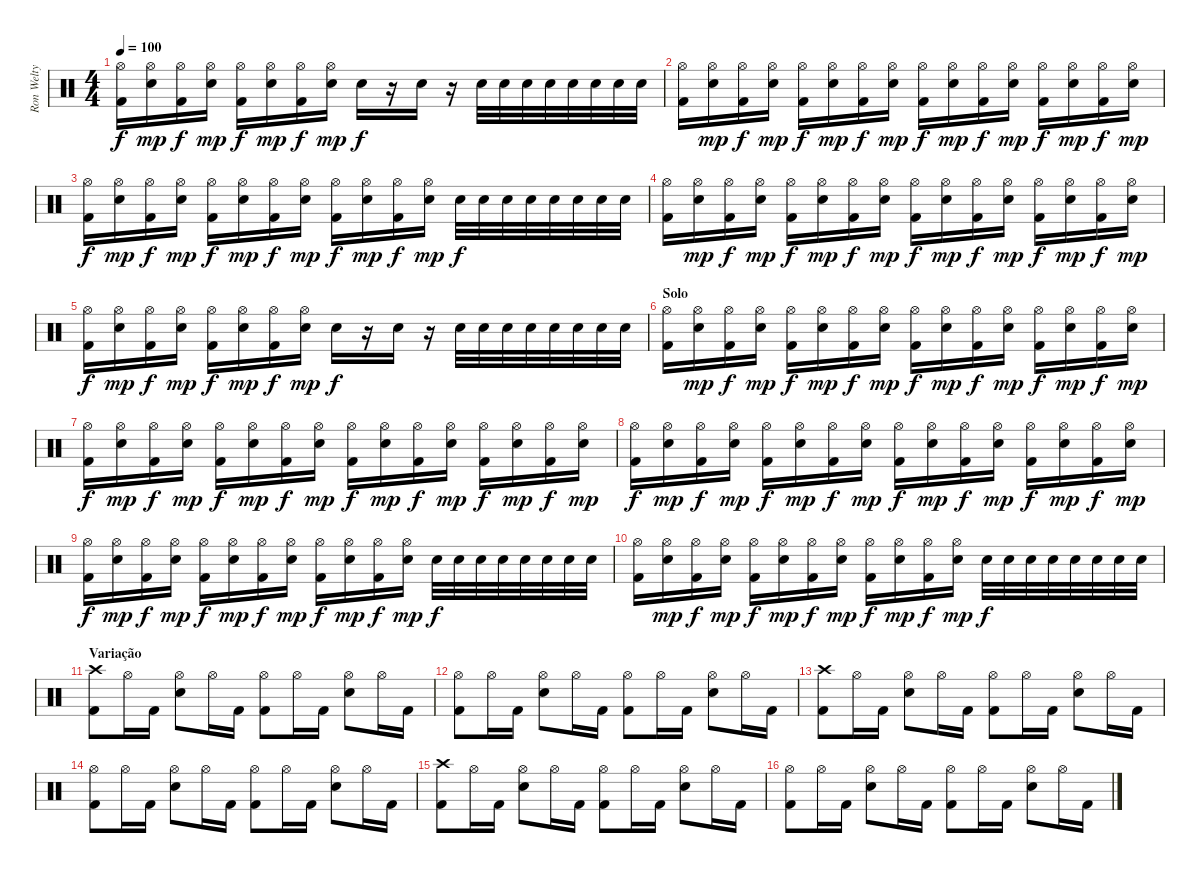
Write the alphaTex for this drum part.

\track ("Ron Welty" "Ron Welty") {instrument percussion}
\staff {score}
\articulation defaults
\ts (4 4)
\tempo 100
\clef neutral
\ks c
("Hi-Hat (open)" "Kick (hit) 2").16{dy f} ("Hi-Hat (open)" "Snare (hit) 2").16{dy mp} ("Hi-Hat (open)" "Kick (hit) 2").16{dy f} ("Hi-Hat (open)" "Snare (hit) 2").16{dy mp} ("Hi-Hat (open)" "Kick (hit) 2").16{dy f} ("Hi-Hat (open)" "Snare (hit) 2").16{dy mp} ("Hi-Hat (open)" "Kick (hit) 2").16{dy f} ("Hi-Hat (open)" "Snare (hit) 2").16{dy mp} "Snare (hit) 2".16{dy f} r.16 "Snare (hit) 2".16 r.16 "Snare (hit) 2".32 "Snare (hit) 2".32 "Snare (hit) 2".32 "Snare (hit) 2".32 "Snare (hit) 2".32 "Snare (hit) 2".32 "Snare (hit) 2".32 "Snare (hit) 2".32 |
("Hi-Hat (open)" "Kick (hit) 2").16 ("Hi-Hat (open)" "Snare (hit) 2").16{dy mp} ("Hi-Hat (open)" "Kick (hit) 2").16{dy f} ("Hi-Hat (open)" "Snare (hit) 2").16{dy mp} ("Hi-Hat (open)" "Kick (hit) 2").16{dy f} ("Hi-Hat (open)" "Snare (hit) 2").16{dy mp} ("Hi-Hat (open)" "Kick (hit) 2").16{dy f} ("Hi-Hat (open)" "Snare (hit) 2").16{dy mp} ("Hi-Hat (open)" "Kick (hit) 2").16{dy f} ("Hi-Hat (open)" "Snare (hit) 2").16{dy mp} ("Hi-Hat (open)" "Kick (hit) 2").16{dy f} ("Hi-Hat (open)" "Snare (hit) 2").16{dy mp} ("Hi-Hat (open)" "Kick (hit) 2").16{dy f} ("Hi-Hat (open)" "Snare (hit) 2").16{dy mp} ("Hi-Hat (open)" "Kick (hit) 2").16{dy f} ("Hi-Hat (open)" "Snare (hit) 2").16{dy mp} |
("Hi-Hat (open)" "Kick (hit) 2").16{dy f} ("Hi-Hat (open)" "Snare (hit) 2").16{dy mp} ("Hi-Hat (open)" "Kick (hit) 2").16{dy f} ("Hi-Hat (open)" "Snare (hit) 2").16{dy mp} ("Hi-Hat (open)" "Kick (hit) 2").16{dy f} ("Hi-Hat (open)" "Snare (hit) 2").16{dy mp} ("Hi-Hat (open)" "Kick (hit) 2").16{dy f} ("Hi-Hat (open)" "Snare (hit) 2").16{dy mp} ("Hi-Hat (open)" "Kick (hit) 2").16{dy f} ("Hi-Hat (open)" "Snare (hit) 2").16{dy mp} ("Hi-Hat (open)" "Kick (hit) 2").16{dy f} ("Hi-Hat (open)" "Snare (hit) 2").16{dy mp} "Snare (hit) 2".32{dy f} "Snare (hit) 2".32 "Snare (hit) 2".32 "Snare (hit) 2".32 "Snare (hit) 2".32 "Snare (hit) 2".32 "Snare (hit) 2".32 "Snare (hit) 2".32 |
("Hi-Hat (open)" "Kick (hit) 2").16 ("Hi-Hat (open)" "Snare (hit) 2").16{dy mp} ("Hi-Hat (open)" "Kick (hit) 2").16{dy f} ("Hi-Hat (open)" "Snare (hit) 2").16{dy mp} ("Hi-Hat (open)" "Kick (hit) 2").16{dy f} ("Hi-Hat (open)" "Snare (hit) 2").16{dy mp} ("Hi-Hat (open)" "Kick (hit) 2").16{dy f} ("Hi-Hat (open)" "Snare (hit) 2").16{dy mp} ("Hi-Hat (open)" "Kick (hit) 2").16{dy f} ("Hi-Hat (open)" "Snare (hit) 2").16{dy mp} ("Hi-Hat (open)" "Kick (hit) 2").16{dy f} ("Hi-Hat (open)" "Snare (hit) 2").16{dy mp} ("Hi-Hat (open)" "Kick (hit) 2").16{dy f} ("Hi-Hat (open)" "Snare (hit) 2").16{dy mp} ("Hi-Hat (open)" "Kick (hit) 2").16{dy f} ("Hi-Hat (open)" "Snare (hit) 2").16{dy mp} |
("Hi-Hat (open)" "Kick (hit) 2").16{dy f} ("Hi-Hat (open)" "Snare (hit) 2").16{dy mp} ("Hi-Hat (open)" "Kick (hit) 2").16{dy f} ("Hi-Hat (open)" "Snare (hit) 2").16{dy mp} ("Hi-Hat (open)" "Kick (hit) 2").16{dy f} ("Hi-Hat (open)" "Snare (hit) 2").16{dy mp} ("Hi-Hat (open)" "Kick (hit) 2").16{dy f} ("Hi-Hat (open)" "Snare (hit) 2").16{dy mp} "Snare (hit) 2".16{dy f} r.16 "Snare (hit) 2".16 r.16 "Snare (hit) 2".32 "Snare (hit) 2".32 "Snare (hit) 2".32 "Snare (hit) 2".32 "Snare (hit) 2".32 "Snare (hit) 2".32 "Snare (hit) 2".32 "Snare (hit) 2".32 |
\section ("" "Solo")
("Hi-Hat (open)" "Kick (hit) 2").16 ("Hi-Hat (open)" "Snare (hit) 2").16{dy mp} ("Hi-Hat (open)" "Kick (hit) 2").16{dy f} ("Hi-Hat (open)" "Snare (hit) 2").16{dy mp} ("Hi-Hat (open)" "Kick (hit) 2").16{dy f} ("Hi-Hat (open)" "Snare (hit) 2").16{dy mp} ("Hi-Hat (open)" "Kick (hit) 2").16{dy f} ("Hi-Hat (open)" "Snare (hit) 2").16{dy mp} ("Hi-Hat (open)" "Kick (hit) 2").16{dy f} ("Hi-Hat (open)" "Snare (hit) 2").16{dy mp} ("Hi-Hat (open)" "Kick (hit) 2").16{dy f} ("Hi-Hat (open)" "Snare (hit) 2").16{dy mp} ("Hi-Hat (open)" "Kick (hit) 2").16{dy f} ("Hi-Hat (open)" "Snare (hit) 2").16{dy mp} ("Hi-Hat (open)" "Kick (hit) 2").16{dy f} ("Hi-Hat (open)" "Snare (hit) 2").16{dy mp} |
("Hi-Hat (open)" "Kick (hit) 2").16{dy f} ("Hi-Hat (open)" "Snare (hit) 2").16{dy mp} ("Hi-Hat (open)" "Kick (hit) 2").16{dy f} ("Hi-Hat (open)" "Snare (hit) 2").16{dy mp} ("Hi-Hat (open)" "Kick (hit) 2").16{dy f} ("Hi-Hat (open)" "Snare (hit) 2").16{dy mp} ("Hi-Hat (open)" "Kick (hit) 2").16{dy f} ("Hi-Hat (open)" "Snare (hit) 2").16{dy mp} ("Hi-Hat (open)" "Kick (hit) 2").16{dy f} ("Hi-Hat (open)" "Snare (hit) 2").16{dy mp} ("Hi-Hat (open)" "Kick (hit) 2").16{dy f} ("Hi-Hat (open)" "Snare (hit) 2").16{dy mp} ("Hi-Hat (open)" "Kick (hit) 2").16{dy f} ("Hi-Hat (open)" "Snare (hit) 2").16{dy mp} ("Hi-Hat (open)" "Kick (hit) 2").16{dy f} ("Hi-Hat (open)" "Snare (hit) 2").16{dy mp} |
("Hi-Hat (open)" "Kick (hit) 2").16{dy f} ("Hi-Hat (open)" "Snare (hit) 2").16{dy mp} ("Hi-Hat (open)" "Kick (hit) 2").16{dy f} ("Hi-Hat (open)" "Snare (hit) 2").16{dy mp} ("Hi-Hat (open)" "Kick (hit) 2").16{dy f} ("Hi-Hat (open)" "Snare (hit) 2").16{dy mp} ("Hi-Hat (open)" "Kick (hit) 2").16{dy f} ("Hi-Hat (open)" "Snare (hit) 2").16{dy mp} ("Hi-Hat (open)" "Kick (hit) 2").16{dy f} ("Hi-Hat (open)" "Snare (hit) 2").16{dy mp} ("Hi-Hat (open)" "Kick (hit) 2").16{dy f} ("Hi-Hat (open)" "Snare (hit) 2").16{dy mp} ("Hi-Hat (open)" "Kick (hit) 2").16{dy f} ("Hi-Hat (open)" "Snare (hit) 2").16{dy mp} ("Hi-Hat (open)" "Kick (hit) 2").16{dy f} ("Hi-Hat (open)" "Snare (hit) 2").16{dy mp} |
("Hi-Hat (open)" "Kick (hit) 2").16{dy f} ("Hi-Hat (open)" "Snare (hit) 2").16{dy mp} ("Hi-Hat (open)" "Kick (hit) 2").16{dy f} ("Hi-Hat (open)" "Snare (hit) 2").16{dy mp} ("Hi-Hat (open)" "Kick (hit) 2").16{dy f} ("Hi-Hat (open)" "Snare (hit) 2").16{dy mp} ("Hi-Hat (open)" "Kick (hit) 2").16{dy f} ("Hi-Hat (open)" "Snare (hit) 2").16{dy mp} ("Hi-Hat (open)" "Kick (hit) 2").16{dy f} ("Hi-Hat (open)" "Snare (hit) 2").16{dy mp} ("Hi-Hat (open)" "Kick (hit) 2").16{dy f} ("Hi-Hat (open)" "Snare (hit) 2").16{dy mp} "Snare (hit) 2".32{dy f} "Snare (hit) 2".32 "Snare (hit) 2".32 "Snare (hit) 2".32 "Snare (hit) 2".32 "Snare (hit) 2".32 "Snare (hit) 2".32 "Snare (hit) 2".32 |
("Hi-Hat (open)" "Kick (hit) 2").16 ("Hi-Hat (open)" "Snare (hit) 2").16{dy mp} ("Hi-Hat (open)" "Kick (hit) 2").16{dy f} ("Hi-Hat (open)" "Snare (hit) 2").16{dy mp} ("Hi-Hat (open)" "Kick (hit) 2").16{dy f} ("Hi-Hat (open)" "Snare (hit) 2").16{dy mp} ("Hi-Hat (open)" "Kick (hit) 2").16{dy f} ("Hi-Hat (open)" "Snare (hit) 2").16{dy mp} ("Hi-Hat (open)" "Kick (hit) 2").16{dy f} ("Hi-Hat (open)" "Snare (hit) 2").16{dy mp} ("Hi-Hat (open)" "Kick (hit) 2").16{dy f} ("Hi-Hat (open)" "Snare (hit) 2").16{dy mp} "Snare (hit) 2".32{dy f} "Snare (hit) 2".32 "Snare (hit) 2".32 "Snare (hit) 2".32 "Snare (hit) 2".32 "Snare (hit) 2".32 "Snare (hit) 2".32 "Snare (hit) 2".32 |
\section ("" "Variação")
("Crash high (hit)" "Kick (hit) 2").8 "Hi-Hat (open)".16 "Kick (hit) 2".16 ("Hi-Hat (open)" "Snare (hit) 2").8 "Hi-Hat (open)".16 "Kick (hit) 2".16 ("Hi-Hat (open)" "Kick (hit) 2").8 "Hi-Hat (open)".16 "Kick (hit) 2".16 ("Hi-Hat (open)" "Snare (hit) 2").8 "Hi-Hat (open)".16 "Kick (hit) 2".16 |
("Hi-Hat (open)" "Kick (hit) 2").8 "Hi-Hat (open)".16 "Kick (hit) 2".16 ("Hi-Hat (open)" "Snare (hit) 2").8 "Hi-Hat (open)".16 "Kick (hit) 2".16 ("Hi-Hat (open)" "Kick (hit) 2").8 "Hi-Hat (open)".16 "Kick (hit) 2".16 ("Hi-Hat (open)" "Snare (hit) 2").8 "Hi-Hat (open)".16 "Kick (hit) 2".16 |
("Crash high (hit)" "Kick (hit) 2").8 "Hi-Hat (open)".16 "Kick (hit) 2".16 ("Hi-Hat (open)" "Snare (hit) 2").8 "Hi-Hat (open)".16 "Kick (hit) 2".16 ("Hi-Hat (open)" "Kick (hit) 2").8 "Hi-Hat (open)".16 "Kick (hit) 2".16 ("Hi-Hat (open)" "Snare (hit) 2").8 "Hi-Hat (open)".16 "Kick (hit) 2".16 |
("Hi-Hat (open)" "Kick (hit) 2").8 "Hi-Hat (open)".16 "Kick (hit) 2".16 ("Hi-Hat (open)" "Snare (hit) 2").8 "Hi-Hat (open)".16 "Kick (hit) 2".16 ("Hi-Hat (open)" "Kick (hit) 2").8 "Hi-Hat (open)".16 "Kick (hit) 2".16 ("Hi-Hat (open)" "Snare (hit) 2").8 "Hi-Hat (open)".16 "Kick (hit) 2".16 |
("Crash high (hit)" "Kick (hit) 2").8 "Hi-Hat (open)".16 "Kick (hit) 2".16 ("Hi-Hat (open)" "Snare (hit) 2").8 "Hi-Hat (open)".16 "Kick (hit) 2".16 ("Hi-Hat (open)" "Kick (hit) 2").8 "Hi-Hat (open)".16 "Kick (hit) 2".16 ("Hi-Hat (open)" "Snare (hit) 2").8 "Hi-Hat (open)".16 "Kick (hit) 2".16 |
("Hi-Hat (open)" "Kick (hit) 2").8 "Hi-Hat (open)".16 "Kick (hit) 2".16 ("Hi-Hat (open)" "Snare (hit) 2").8 "Hi-Hat (open)".16 "Kick (hit) 2".16 ("Hi-Hat (open)" "Kick (hit) 2").8 "Hi-Hat (open)".16 "Kick (hit) 2".16 ("Hi-Hat (open)" "Snare (hit) 2").8 "Hi-Hat (open)".16 "Kick (hit) 2".16
